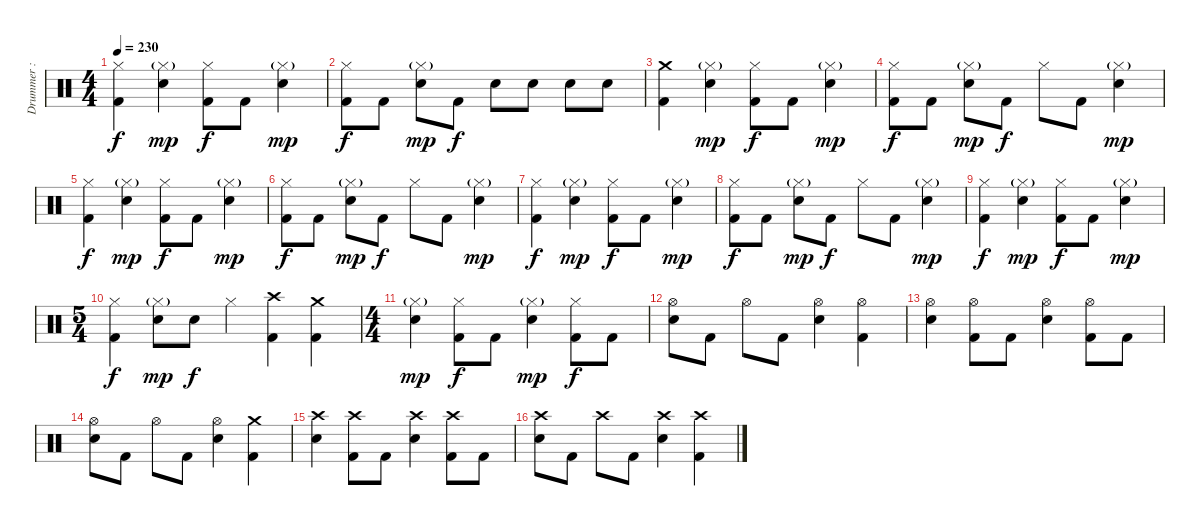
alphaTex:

\track ("Drummer : Tainaka Ritsu - Swan" "Drummer : ") {instrument percussion}
\staff {score}
\articulation defaults
\ts (4 4)
\tempo 230
\clef neutral
\ks c
("Hi-Hat (closed)" "Kick (hit) 2").4{dy f} ("Hi-Hat (closed)"{g} "Electric Snare (hit)").4{dy mp} ("Hi-Hat (closed)" "Kick (hit) 2").8{dy f} "Kick (hit) 2".8 ("Hi-Hat (closed)"{g} "Electric Snare (hit)").4{dy mp} |
("Hi-Hat (closed)" "Kick (hit) 2").8{dy f} "Kick (hit) 2".8 ("Hi-Hat (closed)"{g} "Electric Snare (hit)").8{dy mp} "Kick (hit) 2".8{dy f} "Electric Snare (hit)".8 "Electric Snare (hit)".8 "Electric Snare (hit)".8 "Electric Snare (hit)".8 |
("Crash medium (hit)" "Kick (hit) 2").4 ("Hi-Hat (closed)"{g} "Electric Snare (hit)").4{dy mp} ("Hi-Hat (closed)" "Kick (hit) 2").8{dy f} "Kick (hit) 2".8 ("Hi-Hat (closed)"{g} "Electric Snare (hit)").4{dy mp} |
("Hi-Hat (closed)" "Kick (hit) 2").8{dy f} "Kick (hit) 2".8 ("Hi-Hat (closed)"{g} "Electric Snare (hit)").8{dy mp} "Kick (hit) 2".8{dy f} "Hi-Hat (closed)".8 "Kick (hit) 2".8 ("Hi-Hat (closed)"{g} "Electric Snare (hit)").4{dy mp} |
("Hi-Hat (closed)" "Kick (hit) 2").4{dy f} ("Hi-Hat (closed)"{g} "Electric Snare (hit)").4{dy mp} ("Hi-Hat (closed)" "Kick (hit) 2").8{dy f} "Kick (hit) 2".8 ("Hi-Hat (closed)"{g} "Electric Snare (hit)").4{dy mp} |
("Hi-Hat (closed)" "Kick (hit) 2").8{dy f} "Kick (hit) 2".8 ("Hi-Hat (closed)"{g} "Electric Snare (hit)").8{dy mp} "Kick (hit) 2".8{dy f} "Hi-Hat (closed)".8 "Kick (hit) 2".8 ("Hi-Hat (closed)"{g} "Electric Snare (hit)").4{dy mp} |
("Hi-Hat (closed)" "Kick (hit) 2").4{dy f} ("Hi-Hat (closed)"{g} "Electric Snare (hit)").4{dy mp} ("Hi-Hat (closed)" "Kick (hit) 2").8{dy f} "Kick (hit) 2".8 ("Hi-Hat (closed)"{g} "Electric Snare (hit)").4{dy mp} |
("Hi-Hat (closed)" "Kick (hit) 2").8{dy f} "Kick (hit) 2".8 ("Hi-Hat (closed)"{g} "Electric Snare (hit)").8{dy mp} "Kick (hit) 2".8{dy f} "Hi-Hat (closed)".8 "Kick (hit) 2".8 ("Hi-Hat (closed)"{g} "Electric Snare (hit)").4{dy mp} |
("Hi-Hat (closed)" "Kick (hit) 2").4{dy f} ("Hi-Hat (closed)"{g} "Electric Snare (hit)").4{dy mp} ("Hi-Hat (closed)" "Kick (hit) 2").8{dy f} "Kick (hit) 2".8 ("Hi-Hat (closed)"{g} "Electric Snare (hit)").4{dy mp} |
\ts (5 4)
("Hi-Hat (closed)" "Kick (hit) 2").4{dy f} ("Hi-Hat (closed)"{g} "Electric Snare (hit)").8{dy mp} "Electric Snare (hit)".8{dy f} "Hi-Hat (closed)".4 ("Crash high (hit)" "Kick (hit) 2").4 ("Crash medium (hit)" "Kick (hit) 2").4 |
\ts (4 4)
("Hi-Hat (closed)"{g} "Electric Snare (hit)").4{dy mp} ("Hi-Hat (closed)" "Kick (hit) 2").8{dy f} "Kick (hit) 2".8 ("Hi-Hat (closed)"{g} "Electric Snare (hit)").4{dy mp} ("Hi-Hat (closed)" "Kick (hit) 2").8{dy f} "Kick (hit) 2".8 |
("Hi-Hat (open)" "Electric Snare (hit)").8 "Kick (hit) 2".8 "Hi-Hat (open)".8 "Kick (hit) 2".8 ("Hi-Hat (open)" "Electric Snare (hit)").4 ("Hi-Hat (open)" "Kick (hit) 2").4 |
("Hi-Hat (open)" "Electric Snare (hit)").4 ("Hi-Hat (open)" "Kick (hit) 2").8 "Kick (hit) 2".8 ("Hi-Hat (open)" "Electric Snare (hit)").4 ("Hi-Hat (open)" "Kick (hit) 2").8 "Kick (hit) 2".8 |
("Hi-Hat (open)" "Electric Snare (hit)").8 "Kick (hit) 2".8 "Hi-Hat (open)".8 "Kick (hit) 2".8 ("Hi-Hat (open)" "Electric Snare (hit)").4 ("Crash medium (hit)" "Kick (hit) 2").4 |
("Crash high (hit)" "Electric Snare (hit)").4 ("Crash high (hit)" "Kick (hit) 2").8 "Kick (hit) 2".8 ("Crash high (hit)" "Electric Snare (hit)").4 ("Crash high (hit)" "Kick (hit) 2").8 "Kick (hit) 2".8 |
("Crash high (hit)" "Electric Snare (hit)").8 "Kick (hit) 2".8 "Crash high (hit)".8 "Kick (hit) 2".8 ("Crash high (hit)" "Electric Snare (hit)").4 ("Crash high (hit)" "Kick (hit) 2").4
